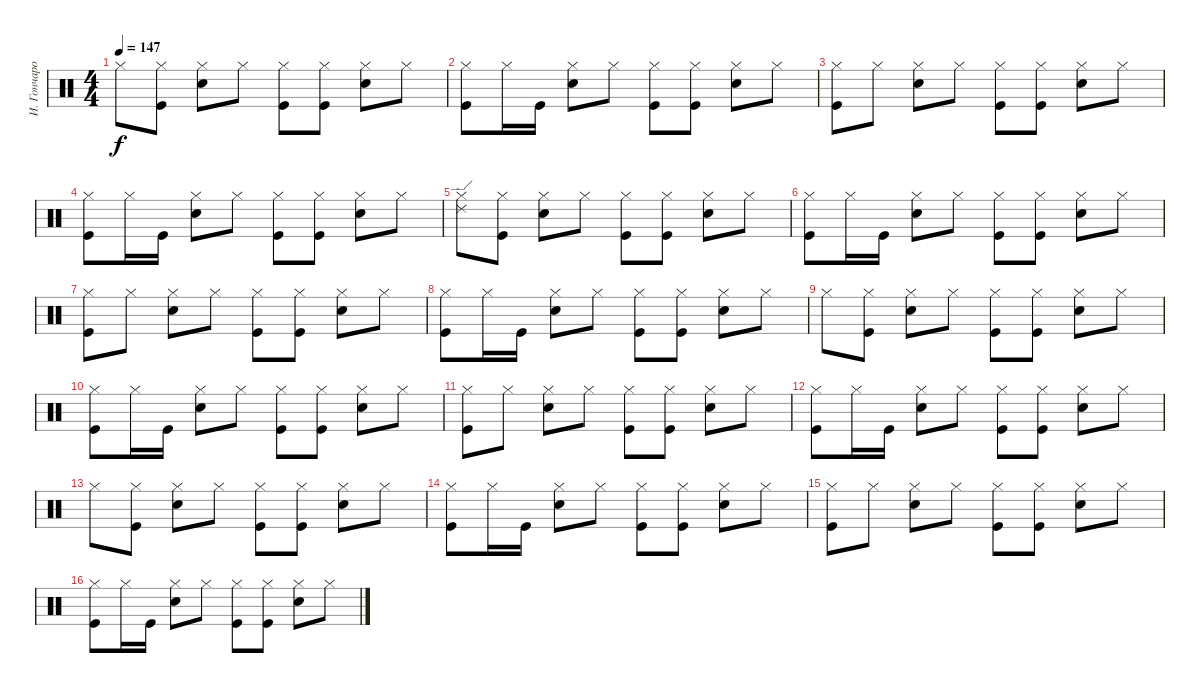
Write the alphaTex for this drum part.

\track ("И. Гончаров" "И. Гончаро") {instrument percussion}
\staff {score}
\articulation defaults
\ts (4 4)
\tempo 147
\clef neutral
\ks c "Hi-Hat (closed)".8{dy f}
("Hi-Hat (closed)" "Kick (hit)").8 ("Hi-Hat (closed)" "Snare (hit) 2").8 "Hi-Hat (closed)".8 ("Hi-Hat (closed)" "Kick (hit)").8 ("Hi-Hat (closed)" "Kick (hit)").8 ("Hi-Hat (closed)" "Snare (hit) 2").8 "Hi-Hat (closed)".8 |
("Hi-Hat (closed)" "Kick (hit)").8 "Hi-Hat (closed)".16 "Kick (hit)".16 ("Hi-Hat (closed)" "Snare (hit) 2").8 "Hi-Hat (closed)".8 ("Hi-Hat (closed)" "Kick (hit)").8 ("Hi-Hat (closed)" "Kick (hit)").8 ("Hi-Hat (closed)" "Snare (hit) 2").8 "Hi-Hat (closed)".8 |
("Hi-Hat (closed)" "Kick (hit)").8 "Hi-Hat (closed)".8 ("Hi-Hat (closed)" "Snare (hit) 2").8 "Hi-Hat (closed)".8 ("Hi-Hat (closed)" "Kick (hit)").8 ("Hi-Hat (closed)" "Kick (hit)").8 ("Hi-Hat (closed)" "Snare (hit) 2").8 "Hi-Hat (closed)".8 |
("Hi-Hat (closed)" "Kick (hit)").8 "Hi-Hat (closed)".16 "Kick (hit)".16 ("Hi-Hat (closed)" "Snare (hit) 2").8 "Hi-Hat (closed)".8 ("Hi-Hat (closed)" "Kick (hit)").8 ("Hi-Hat (closed)" "Kick (hit)").8 ("Hi-Hat (closed)" "Snare (hit) 2").8 "Hi-Hat (closed)".8 |
("Ride (edge) 2" "Hi-Hat (closed)").8 ("Hi-Hat (closed)" "Kick (hit)").8 ("Hi-Hat (closed)" "Snare (hit) 2").8 "Hi-Hat (closed)".8 ("Hi-Hat (closed)" "Kick (hit)").8 ("Hi-Hat (closed)" "Kick (hit)").8 ("Hi-Hat (closed)" "Snare (hit) 2").8 "Hi-Hat (closed)".8 |
("Hi-Hat (closed)" "Kick (hit)").8 "Hi-Hat (closed)".16 "Kick (hit)".16 ("Hi-Hat (closed)" "Snare (hit) 2").8 "Hi-Hat (closed)".8 ("Hi-Hat (closed)" "Kick (hit)").8 ("Hi-Hat (closed)" "Kick (hit)").8 ("Hi-Hat (closed)" "Snare (hit) 2").8 "Hi-Hat (closed)".8 |
("Hi-Hat (closed)" "Kick (hit)").8 "Hi-Hat (closed)".8 ("Hi-Hat (closed)" "Snare (hit) 2").8 "Hi-Hat (closed)".8 ("Hi-Hat (closed)" "Kick (hit)").8 ("Hi-Hat (closed)" "Kick (hit)").8 ("Hi-Hat (closed)" "Snare (hit) 2").8 "Hi-Hat (closed)".8 |
("Hi-Hat (closed)" "Kick (hit)").8 "Hi-Hat (closed)".16 "Kick (hit)".16 ("Hi-Hat (closed)" "Snare (hit) 2").8 "Hi-Hat (closed)".8 ("Hi-Hat (closed)" "Kick (hit)").8 ("Hi-Hat (closed)" "Kick (hit)").8 ("Hi-Hat (closed)" "Snare (hit) 2").8 "Hi-Hat (closed)".8 |
"Hi-Hat (closed)".8 ("Hi-Hat (closed)" "Kick (hit)").8 ("Hi-Hat (closed)" "Snare (hit) 2").8 "Hi-Hat (closed)".8 ("Hi-Hat (closed)" "Kick (hit)").8 ("Hi-Hat (closed)" "Kick (hit)").8 ("Hi-Hat (closed)" "Snare (hit) 2").8 "Hi-Hat (closed)".8 |
("Hi-Hat (closed)" "Kick (hit)").8 "Hi-Hat (closed)".16 "Kick (hit)".16 ("Hi-Hat (closed)" "Snare (hit) 2").8 "Hi-Hat (closed)".8 ("Hi-Hat (closed)" "Kick (hit)").8 ("Hi-Hat (closed)" "Kick (hit)").8 ("Hi-Hat (closed)" "Snare (hit) 2").8 "Hi-Hat (closed)".8 |
("Hi-Hat (closed)" "Kick (hit)").8 "Hi-Hat (closed)".8 ("Hi-Hat (closed)" "Snare (hit) 2").8 "Hi-Hat (closed)".8 ("Hi-Hat (closed)" "Kick (hit)").8 ("Hi-Hat (closed)" "Kick (hit)").8 ("Hi-Hat (closed)" "Snare (hit) 2").8 "Hi-Hat (closed)".8 |
("Hi-Hat (closed)" "Kick (hit)").8 "Hi-Hat (closed)".16 "Kick (hit)".16 ("Hi-Hat (closed)" "Snare (hit) 2").8 "Hi-Hat (closed)".8 ("Hi-Hat (closed)" "Kick (hit)").8 ("Hi-Hat (closed)" "Kick (hit)").8 ("Hi-Hat (closed)" "Snare (hit) 2").8 "Hi-Hat (closed)".8 |
"Hi-Hat (closed)".8 ("Hi-Hat (closed)" "Kick (hit)").8 ("Hi-Hat (closed)" "Snare (hit) 2").8 "Hi-Hat (closed)".8 ("Hi-Hat (closed)" "Kick (hit)").8 ("Hi-Hat (closed)" "Kick (hit)").8 ("Hi-Hat (closed)" "Snare (hit) 2").8 "Hi-Hat (closed)".8 |
("Hi-Hat (closed)" "Kick (hit)").8 "Hi-Hat (closed)".16 "Kick (hit)".16 ("Hi-Hat (closed)" "Snare (hit) 2").8 "Hi-Hat (closed)".8 ("Hi-Hat (closed)" "Kick (hit)").8 ("Hi-Hat (closed)" "Kick (hit)").8 ("Hi-Hat (closed)" "Snare (hit) 2").8 "Hi-Hat (closed)".8 |
("Hi-Hat (closed)" "Kick (hit)").8 "Hi-Hat (closed)".8 ("Hi-Hat (closed)" "Snare (hit) 2").8 "Hi-Hat (closed)".8 ("Hi-Hat (closed)" "Kick (hit)").8 ("Hi-Hat (closed)" "Kick (hit)").8 ("Hi-Hat (closed)" "Snare (hit) 2").8 "Hi-Hat (closed)".8 |
("Hi-Hat (closed)" "Kick (hit)").8 "Hi-Hat (closed)".16 "Kick (hit)".16 ("Hi-Hat (closed)" "Snare (hit) 2").8 "Hi-Hat (closed)".8 ("Hi-Hat (closed)" "Kick (hit)").8 ("Hi-Hat (closed)" "Kick (hit)").8 ("Hi-Hat (closed)" "Snare (hit) 2").8 "Hi-Hat (closed)".8
